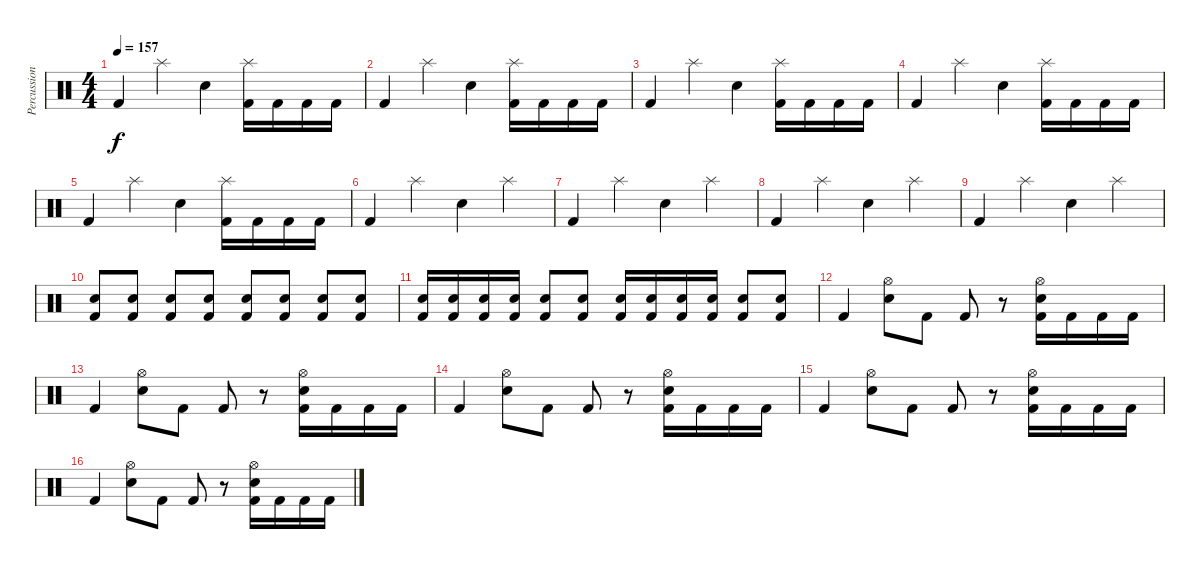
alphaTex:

\track ("Percussion" "Percussion") {instrument percussion}
\staff {score}
\articulation defaults
\ts (4 4)
\tempo 157
\clef neutral
\ks c "Kick (hit) 2".4{dy f} "Splash (hit)".4 "Snare (hit) 2".4
("Splash (hit)" "Kick (hit) 2").16 "Kick (hit) 2".16 "Kick (hit) 2".16 "Kick (hit) 2".16 |
"Kick (hit) 2".4 "Splash (hit)".4 "Snare (hit) 2".4 ("Splash (hit)" "Kick (hit) 2").16 "Kick (hit) 2".16 "Kick (hit) 2".16 "Kick (hit) 2".16 |
"Kick (hit) 2".4 "Splash (hit)".4 "Snare (hit) 2".4 ("Splash (hit)" "Kick (hit) 2").16 "Kick (hit) 2".16 "Kick (hit) 2".16 "Kick (hit) 2".16 |
"Kick (hit) 2".4 "Splash (hit)".4 "Snare (hit) 2".4 ("Splash (hit)" "Kick (hit) 2").16 "Kick (hit) 2".16 "Kick (hit) 2".16 "Kick (hit) 2".16 |
"Kick (hit) 2".4 "Splash (hit)".4 "Snare (hit) 2".4 ("Splash (hit)" "Kick (hit) 2").16 "Kick (hit) 2".16 "Kick (hit) 2".16 "Kick (hit) 2".16 |
"Kick (hit) 2".4 "Splash (hit)".4 "Snare (hit) 2".4 "Splash (hit)".4 |
"Kick (hit) 2".4 "Splash (hit)".4 "Snare (hit) 2".4 "Splash (hit)".4 |
"Kick (hit) 2".4 "Splash (hit)".4 "Snare (hit) 2".4 "Splash (hit)".4 |
"Kick (hit) 2".4 "Splash (hit)".4 "Snare (hit) 2".4 "Splash (hit)".4 |
("Snare (hit) 2" "Kick (hit) 2").8 ("Snare (hit) 2" "Kick (hit) 2").8 ("Snare (hit) 2" "Kick (hit) 2").8 ("Snare (hit) 2" "Kick (hit) 2").8 ("Snare (hit) 2" "Kick (hit) 2").8 ("Snare (hit) 2" "Kick (hit) 2").8 ("Snare (hit) 2" "Kick (hit) 2").8 ("Snare (hit) 2" "Kick (hit) 2").8 |
("Snare (hit) 2" "Kick (hit) 2").16 ("Snare (hit) 2" "Kick (hit) 2").16 ("Snare (hit) 2" "Kick (hit) 2").16 ("Snare (hit) 2" "Kick (hit) 2").16 ("Snare (hit) 2" "Kick (hit) 2").8 ("Snare (hit) 2" "Kick (hit) 2").8 ("Snare (hit) 2" "Kick (hit) 2").16 ("Snare (hit) 2" "Kick (hit) 2").16 ("Snare (hit) 2" "Kick (hit) 2").16 ("Snare (hit) 2" "Kick (hit) 2").16 ("Snare (hit) 2" "Kick (hit) 2").8 ("Snare (hit) 2" "Kick (hit) 2").8 |
"Kick (hit) 2".4 ("Hi-Hat (open)" "Snare (hit) 2").8 "Kick (hit) 2".8 "Kick (hit) 2".8 r.8 ("Hi-Hat (open)" "Snare (hit) 2" "Kick (hit) 2").16 "Kick (hit) 2".16 "Kick (hit) 2".16 "Kick (hit) 2".16 |
"Kick (hit) 2".4 ("Hi-Hat (open)" "Snare (hit) 2").8 "Kick (hit) 2".8 "Kick (hit) 2".8 r.8 ("Hi-Hat (open)" "Snare (hit) 2" "Kick (hit) 2").16 "Kick (hit) 2".16 "Kick (hit) 2".16 "Kick (hit) 2".16 |
"Kick (hit) 2".4 ("Hi-Hat (open)" "Snare (hit) 2").8 "Kick (hit) 2".8 "Kick (hit) 2".8 r.8 ("Hi-Hat (open)" "Snare (hit) 2" "Kick (hit) 2").16 "Kick (hit) 2".16 "Kick (hit) 2".16 "Kick (hit) 2".16 |
"Kick (hit) 2".4 ("Hi-Hat (open)" "Snare (hit) 2").8 "Kick (hit) 2".8 "Kick (hit) 2".8 r.8 ("Hi-Hat (open)" "Snare (hit) 2" "Kick (hit) 2").16 "Kick (hit) 2".16 "Kick (hit) 2".16 "Kick (hit) 2".16 |
"Kick (hit) 2".4 ("Hi-Hat (open)" "Snare (hit) 2").8 "Kick (hit) 2".8 "Kick (hit) 2".8 r.8 ("Hi-Hat (open)" "Snare (hit) 2" "Kick (hit) 2").16 "Kick (hit) 2".16 "Kick (hit) 2".16 "Kick (hit) 2".16
